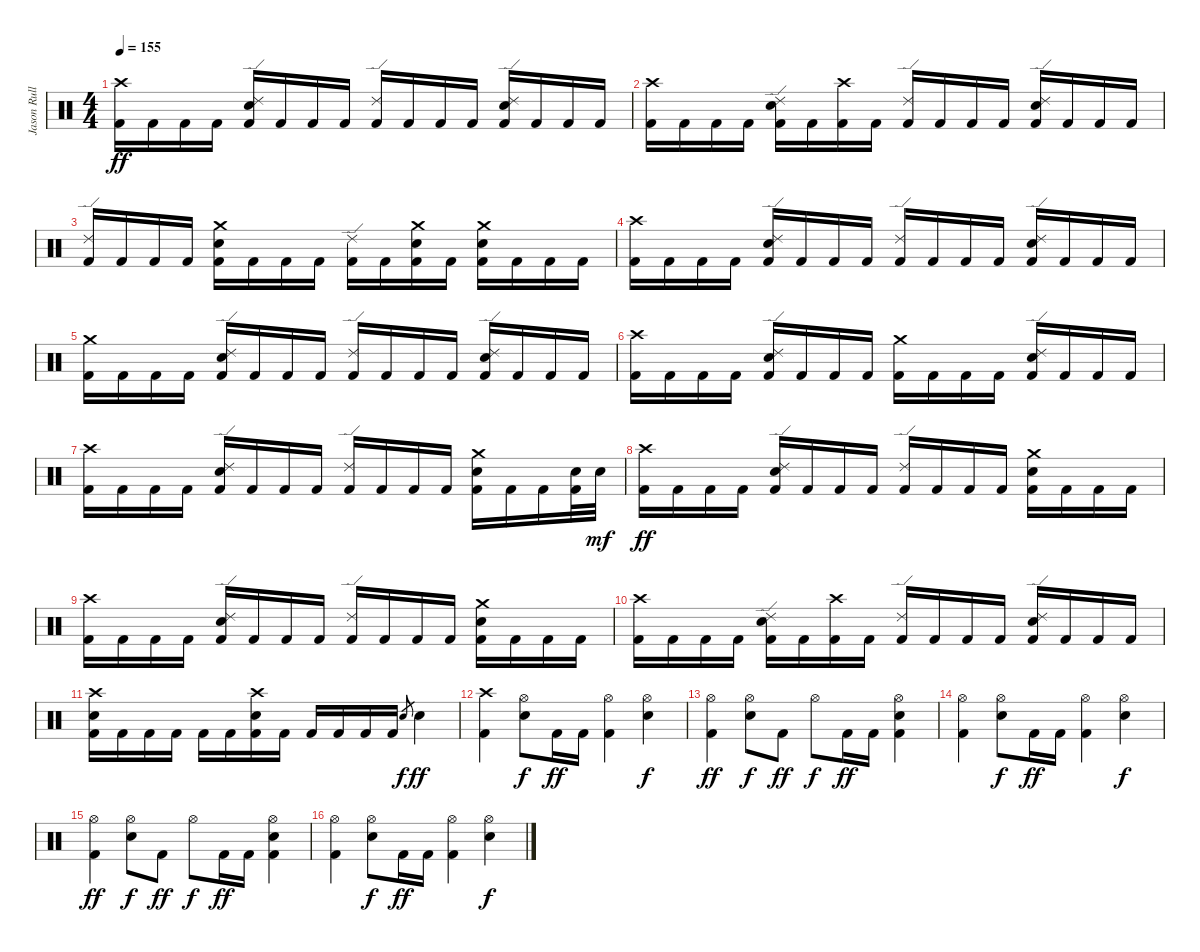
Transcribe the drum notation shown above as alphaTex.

\track ("Jason Rullo" "Jason Rull") {instrument percussion}
\staff {score}
\articulation defaults
\ts (4 4)
\tempo 155
\clef neutral
\ks c
("Crash high (hit)" "Kick (hit) 2").16{dy ff} "Kick (hit) 2".16 "Kick (hit) 2".16 "Kick (hit) 2".16 ("Ride (edge) 2" "Electric Snare (hit)" "Kick (hit) 2").16 "Kick (hit) 2".16 "Kick (hit) 2".16 "Kick (hit) 2".16 ("Ride (edge) 2" "Kick (hit) 2").16 "Kick (hit) 2".16 "Kick (hit) 2".16 "Kick (hit) 2".16 ("Ride (edge) 2" "Electric Snare (hit)" "Kick (hit) 2").16 "Kick (hit) 2".16 "Kick (hit) 2".16 "Kick (hit) 2".16 |
("Crash high (hit)" "Kick (hit) 2").16 "Kick (hit) 2".16 "Kick (hit) 2".16 "Kick (hit) 2".16 ("Ride (edge) 2" "Electric Snare (hit)" "Kick (hit) 2").16 "Kick (hit) 2".16 ("Crash high (hit)" "Kick (hit) 2").16 "Kick (hit) 2".16 ("Ride (edge) 2" "Kick (hit) 2").16 "Kick (hit) 2".16 "Kick (hit) 2".16 "Kick (hit) 2".16 ("Ride (edge) 2" "Electric Snare (hit)" "Kick (hit) 2").16 "Kick (hit) 2".16 "Kick (hit) 2".16 "Kick (hit) 2".16 |
("Ride (edge) 2" "Kick (hit) 2").16 "Kick (hit) 2".16 "Kick (hit) 2".16 "Kick (hit) 2".16 ("Crash medium (hit)" "Electric Snare (hit)" "Kick (hit) 2").16 "Kick (hit) 2".16 "Kick (hit) 2".16 "Kick (hit) 2".16 ("Ride (edge) 2" "Kick (hit) 2").16 "Kick (hit) 2".16 ("Crash medium (hit)" "Electric Snare (hit)" "Kick (hit) 2").16 "Kick (hit) 2".16 ("Crash medium (hit)" "Electric Snare (hit)" "Kick (hit) 2").16 "Kick (hit) 2".16 "Kick (hit) 2".16 "Kick (hit) 2".16 |
("Crash high (hit)" "Kick (hit) 2").16 "Kick (hit) 2".16 "Kick (hit) 2".16 "Kick (hit) 2".16 ("Ride (edge) 2" "Electric Snare (hit)" "Kick (hit) 2").16 "Kick (hit) 2".16 "Kick (hit) 2".16 "Kick (hit) 2".16 ("Ride (edge) 2" "Kick (hit) 2").16 "Kick (hit) 2".16 "Kick (hit) 2".16 "Kick (hit) 2".16 ("Ride (edge) 2" "Electric Snare (hit)" "Kick (hit) 2").16 "Kick (hit) 2".16 "Kick (hit) 2".16 "Kick (hit) 2".16 |
("Crash medium (hit)" "Kick (hit) 2").16 "Kick (hit) 2".16 "Kick (hit) 2".16 "Kick (hit) 2".16 ("Ride (edge) 2" "Electric Snare (hit)" "Kick (hit) 2").16 "Kick (hit) 2".16 "Kick (hit) 2".16 "Kick (hit) 2".16 ("Ride (edge) 2" "Kick (hit) 2").16 "Kick (hit) 2".16 "Kick (hit) 2".16 "Kick (hit) 2".16 ("Ride (edge) 2" "Electric Snare (hit)" "Kick (hit) 2").16 "Kick (hit) 2".16 "Kick (hit) 2".16 "Kick (hit) 2".16 |
("Crash high (hit)" "Kick (hit) 2").16 "Kick (hit) 2".16 "Kick (hit) 2".16 "Kick (hit) 2".16 ("Ride (edge) 2" "Electric Snare (hit)" "Kick (hit) 2").16 "Kick (hit) 2".16 "Kick (hit) 2".16 "Kick (hit) 2".16 ("Crash medium (hit)" "Kick (hit) 2").16 "Kick (hit) 2".16 "Kick (hit) 2".16 "Kick (hit) 2".16 ("Ride (edge) 2" "Electric Snare (hit)" "Kick (hit) 2").16 "Kick (hit) 2".16 "Kick (hit) 2".16 "Kick (hit) 2".16 |
("Crash high (hit)" "Kick (hit) 2").16 "Kick (hit) 2".16 "Kick (hit) 2".16 "Kick (hit) 2".16 ("Ride (edge) 2" "Electric Snare (hit)" "Kick (hit) 2").16 "Kick (hit) 2".16 "Kick (hit) 2".16 "Kick (hit) 2".16 ("Ride (edge) 2" "Kick (hit) 2").16 "Kick (hit) 2".16 "Kick (hit) 2".16 "Kick (hit) 2".16 ("Crash medium (hit)" "Electric Snare (hit)" "Kick (hit) 2").16 "Kick (hit) 2".16 "Kick (hit) 2".16 ("Electric Snare (hit)" "Kick (hit) 2").32 "Electric Snare (hit)".32{dy mf} |
("Crash high (hit)" "Kick (hit) 2").16{dy ff} "Kick (hit) 2".16 "Kick (hit) 2".16 "Kick (hit) 2".16 ("Ride (edge) 2" "Electric Snare (hit)" "Kick (hit) 2").16 "Kick (hit) 2".16 "Kick (hit) 2".16 "Kick (hit) 2".16 ("Ride (edge) 2" "Kick (hit) 2").16 "Kick (hit) 2".16 "Kick (hit) 2".16 "Kick (hit) 2".16 ("Crash medium (hit)" "Electric Snare (hit)" "Kick (hit) 2").16 "Kick (hit) 2".16 "Kick (hit) 2".16 "Kick (hit) 2".16 |
("Crash high (hit)" "Kick (hit) 2").16 "Kick (hit) 2".16 "Kick (hit) 2".16 "Kick (hit) 2".16 ("Ride (edge) 2" "Electric Snare (hit)" "Kick (hit) 2").16 "Kick (hit) 2".16 "Kick (hit) 2".16 "Kick (hit) 2".16 ("Ride (edge) 2" "Kick (hit) 2").16 "Kick (hit) 2".16 "Kick (hit) 2".16 "Kick (hit) 2".16 ("Crash medium (hit)" "Electric Snare (hit)" "Kick (hit) 2").16 "Kick (hit) 2".16 "Kick (hit) 2".16 "Kick (hit) 2".16 |
("Crash high (hit)" "Kick (hit) 2").16 "Kick (hit) 2".16 "Kick (hit) 2".16 "Kick (hit) 2".16 ("Ride (edge) 2" "Electric Snare (hit)" "Kick (hit) 2").16 "Kick (hit) 2".16 ("Crash high (hit)" "Kick (hit) 2").16 "Kick (hit) 2".16 ("Ride (edge) 2" "Kick (hit) 2").16 "Kick (hit) 2".16 "Kick (hit) 2".16 "Kick (hit) 2".16 ("Ride (edge) 2" "Electric Snare (hit)" "Kick (hit) 2").16 "Kick (hit) 2".16 "Kick (hit) 2".16 "Kick (hit) 2".16 |
("Crash high (hit)" "Electric Snare (hit)" "Kick (hit) 2").16 "Kick (hit) 2".16 "Kick (hit) 2".16 "Kick (hit) 2".16 "Kick (hit) 2".16 "Kick (hit) 2".16 ("Crash high (hit)" "Electric Snare (hit)" "Kick (hit) 2").16 "Kick (hit) 2".16 "Kick (hit) 2".16 "Kick (hit) 2".16 "Kick (hit) 2".16 "Kick (hit) 2".16 "Electric Snare (hit)".8{gr dy f} "Electric Snare (hit)".4{dy ff} |
("Crash high (hit)" "Kick (hit) 2").4 ("Hi-Hat (open)" "Electric Snare (hit)").8{dy f} "Kick (hit) 2".16{dy ff} "Kick (hit) 2".16 ("Hi-Hat (open)" "Kick (hit) 2").4 ("Hi-Hat (open)" "Electric Snare (hit)").4{dy f} |
("Hi-Hat (open)" "Kick (hit) 2").4{dy ff} ("Hi-Hat (open)" "Electric Snare (hit)").8{dy f} "Kick (hit) 2".8{dy ff} "Hi-Hat (open)".8{dy f} "Kick (hit) 2".16{dy ff} "Kick (hit) 2".16 ("Hi-Hat (open)" "Electric Snare (hit)" "Kick (hit) 2").4 |
("Hi-Hat (open)" "Kick (hit) 2").4 ("Hi-Hat (open)" "Electric Snare (hit)").8{dy f} "Kick (hit) 2".16{dy ff} "Kick (hit) 2".16 ("Hi-Hat (open)" "Kick (hit) 2").4 ("Hi-Hat (open)" "Electric Snare (hit)").4{dy f} |
("Hi-Hat (open)" "Kick (hit) 2").4{dy ff} ("Hi-Hat (open)" "Electric Snare (hit)").8{dy f} "Kick (hit) 2".8{dy ff} "Hi-Hat (open)".8{dy f} "Kick (hit) 2".16{dy ff} "Kick (hit) 2".16 ("Hi-Hat (open)" "Electric Snare (hit)" "Kick (hit) 2").4 |
("Hi-Hat (open)" "Kick (hit) 2").4 ("Hi-Hat (open)" "Electric Snare (hit)").8{dy f} "Kick (hit) 2".16{dy ff} "Kick (hit) 2".16 ("Hi-Hat (open)" "Kick (hit) 2").4 ("Hi-Hat (open)" "Electric Snare (hit)").4{dy f}
